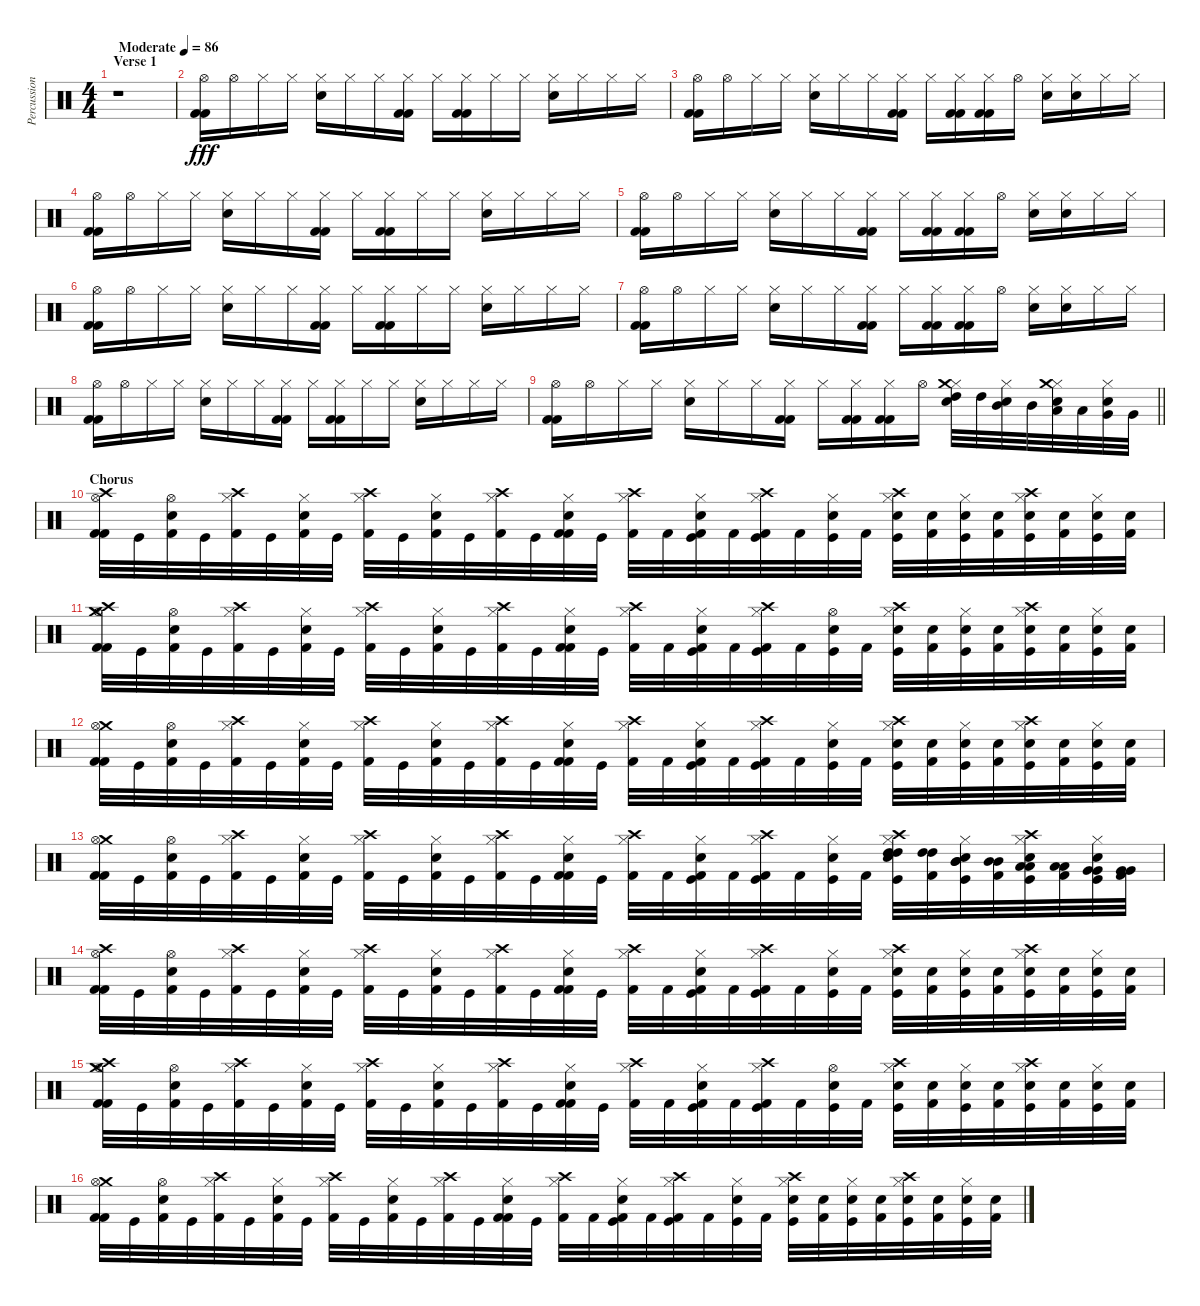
\track ("Percussion" "Percussion") {instrument percussion}
\staff {score}
\articulation defaults
\ts (4 4)
\section ("" "Verse 1")
\tempo (86 "Moderate")
\clef neutral
\ks c
r.1{dy fff} |
("Hi-Hat (open)" "Kick (hit) 2" "Kick (hit) 2").16 "Hi-Hat (open)".16 "Hi-Hat (closed)".16 "Hi-Hat (closed)".16 ("Hi-Hat (closed)" "Electric Snare (hit)").16 "Hi-Hat (closed)".16 "Hi-Hat (closed)".16 ("Hi-Hat (closed)" "Kick (hit) 2" "Kick (hit) 2").16 "Hi-Hat (closed)".16 ("Hi-Hat (closed)" "Kick (hit) 2" "Kick (hit) 2").16 "Hi-Hat (closed)".16 "Hi-Hat (closed)".16 ("Hi-Hat (closed)" "Electric Snare (hit)").16 "Hi-Hat (closed)".16 "Hi-Hat (closed)".16 "Hi-Hat (closed)".16 |
("Hi-Hat (open)" "Kick (hit) 2" "Kick (hit) 2").16 "Hi-Hat (open)".16 "Hi-Hat (closed)".16 "Hi-Hat (closed)".16 ("Hi-Hat (closed)" "Electric Snare (hit)").16 "Hi-Hat (closed)".16 "Hi-Hat (closed)".16 ("Hi-Hat (closed)" "Kick (hit) 2" "Kick (hit) 2").16 "Hi-Hat (closed)".16 ("Hi-Hat (closed)" "Kick (hit) 2" "Kick (hit) 2").16 ("Hi-Hat (closed)" "Kick (hit) 2" "Kick (hit) 2").16 "Hi-Hat (open)".16 ("Hi-Hat (closed)" "Electric Snare (hit)").16 ("Hi-Hat (closed)" "Electric Snare (hit)").16 "Hi-Hat (closed)".16 "Hi-Hat (closed)".16 |
("Hi-Hat (open)" "Kick (hit) 2" "Kick (hit) 2").16 "Hi-Hat (open)".16 "Hi-Hat (closed)".16 "Hi-Hat (closed)".16 ("Hi-Hat (closed)" "Electric Snare (hit)").16 "Hi-Hat (closed)".16 "Hi-Hat (closed)".16 ("Hi-Hat (closed)" "Kick (hit) 2" "Kick (hit) 2").16 "Hi-Hat (closed)".16 ("Hi-Hat (closed)" "Kick (hit) 2" "Kick (hit) 2").16 "Hi-Hat (closed)".16 "Hi-Hat (closed)".16 ("Hi-Hat (closed)" "Electric Snare (hit)").16 "Hi-Hat (closed)".16 "Hi-Hat (closed)".16 "Hi-Hat (closed)".16 |
("Hi-Hat (open)" "Kick (hit) 2" "Kick (hit) 2").16 "Hi-Hat (open)".16 "Hi-Hat (closed)".16 "Hi-Hat (closed)".16 ("Hi-Hat (closed)" "Electric Snare (hit)").16 "Hi-Hat (closed)".16 "Hi-Hat (closed)".16 ("Hi-Hat (closed)" "Kick (hit) 2" "Kick (hit) 2").16 "Hi-Hat (closed)".16 ("Hi-Hat (closed)" "Kick (hit) 2" "Kick (hit) 2").16 ("Hi-Hat (closed)" "Kick (hit) 2" "Kick (hit) 2").16 "Hi-Hat (open)".16 ("Hi-Hat (closed)" "Electric Snare (hit)").16 ("Hi-Hat (closed)" "Electric Snare (hit)").16 "Hi-Hat (closed)".16 "Hi-Hat (closed)".16 |
("Hi-Hat (open)" "Kick (hit) 2" "Kick (hit) 2").16 "Hi-Hat (open)".16 "Hi-Hat (closed)".16 "Hi-Hat (closed)".16 ("Hi-Hat (closed)" "Electric Snare (hit)").16 "Hi-Hat (closed)".16 "Hi-Hat (closed)".16 ("Hi-Hat (closed)" "Kick (hit) 2" "Kick (hit) 2").16 "Hi-Hat (closed)".16 ("Hi-Hat (closed)" "Kick (hit) 2" "Kick (hit) 2").16 "Hi-Hat (closed)".16 "Hi-Hat (closed)".16 ("Hi-Hat (closed)" "Electric Snare (hit)").16 "Hi-Hat (closed)".16 "Hi-Hat (closed)".16 "Hi-Hat (closed)".16 |
("Hi-Hat (open)" "Kick (hit) 2" "Kick (hit) 2").16 "Hi-Hat (open)".16 "Hi-Hat (closed)".16 "Hi-Hat (closed)".16 ("Hi-Hat (closed)" "Electric Snare (hit)").16 "Hi-Hat (closed)".16 "Hi-Hat (closed)".16 ("Hi-Hat (closed)" "Kick (hit) 2" "Kick (hit) 2").16 "Hi-Hat (closed)".16 ("Hi-Hat (closed)" "Kick (hit) 2" "Kick (hit) 2").16 ("Hi-Hat (closed)" "Kick (hit) 2" "Kick (hit) 2").16 "Hi-Hat (open)".16 ("Hi-Hat (closed)" "Electric Snare (hit)").16 ("Hi-Hat (closed)" "Electric Snare (hit)").16 "Hi-Hat (closed)".16 "Hi-Hat (closed)".16 |
("Hi-Hat (open)" "Kick (hit) 2" "Kick (hit) 2").16 "Hi-Hat (open)".16 "Hi-Hat (closed)".16 "Hi-Hat (closed)".16 ("Hi-Hat (closed)" "Electric Snare (hit)").16 "Hi-Hat (closed)".16 "Hi-Hat (closed)".16 ("Hi-Hat (closed)" "Kick (hit) 2" "Kick (hit) 2").16 "Hi-Hat (closed)".16 ("Hi-Hat (closed)" "Kick (hit) 2" "Kick (hit) 2").16 "Hi-Hat (closed)".16 "Hi-Hat (closed)".16 ("Hi-Hat (closed)" "Electric Snare (hit)").16 "Hi-Hat (closed)".16 "Hi-Hat (closed)".16 "Hi-Hat (closed)".16 |
\barLineRight lightlight
("Hi-Hat (open)" "Kick (hit) 2" "Kick (hit) 2").16 "Hi-Hat (open)".16 "Hi-Hat (closed)".16 "Hi-Hat (closed)".16 ("Hi-Hat (closed)" "Electric Snare (hit)").16 "Hi-Hat (closed)".16 "Hi-Hat (closed)".16 ("Hi-Hat (closed)" "Kick (hit) 2" "Kick (hit) 2").16 "Hi-Hat (closed)".16 ("Hi-Hat (closed)" "Kick (hit) 2" "Kick (hit) 2").16 ("Hi-Hat (closed)" "Kick (hit) 2" "Kick (hit) 2").16 "Hi-Hat (open)".16 ("Hi-Hat (closed)" "High Tom (hit)" "Electric Snare (hit)" "Crash medium (hit)").32 "High Tom (hit)".32 ("Hi-Hat (closed)" "Mid Tom (hit)" "Electric Snare (hit)").32 "Mid Tom (hit)".32 ("Hi-Hat (closed)" "Low Tom (hit)" "Electric Snare (hit)" "Crash medium (hit)").32 "Low Tom (hit)".32 ("Hi-Hat (closed)" "Very Low Tom (hit)" "Electric Snare (hit)").32 "Very Low Tom (hit)".32 |
\section ("" "Chorus")
("Crash high (hit)" "Hi-Hat (open)" "Kick (hit) 2" "Kick (hit) 2").32 "Kick (hit)".32 ("Hi-Hat (open)" "Electric Snare (hit)" "Kick (hit) 2").32 "Kick (hit)".32 ("Crash high (hit)" "Hi-Hat (closed)" "Kick (hit) 2").32 "Kick (hit)".32 ("Hi-Hat (closed)" "Electric Snare (hit)" "Kick (hit) 2").32 "Kick (hit)".32 ("Crash high (hit)" "Hi-Hat (closed)" "Kick (hit) 2").32 "Kick (hit)".32 ("Hi-Hat (closed)" "Electric Snare (hit)" "Kick (hit) 2").32 "Kick (hit)".32 ("Crash high (hit)" "Hi-Hat (closed)" "Kick (hit) 2").32 "Kick (hit)".32 ("Hi-Hat (closed)" "Electric Snare (hit)" "Kick (hit) 2" "Kick (hit) 2").32 "Kick (hit)".32 ("Crash high (hit)" "Hi-Hat (closed)" "Kick (hit) 2").32 "Kick (hit) 2".32 ("Hi-Hat (closed)" "Electric Snare (hit)" "Kick (hit) 2" "Kick (hit)").32 "Kick (hit) 2".32 ("Crash high (hit)" "Hi-Hat (closed)" "Kick (hit) 2" "Kick (hit)").32 "Kick (hit) 2".32 ("Hi-Hat (closed)" "Electric Snare (hit)" "Kick (hit)").32 "Kick (hit) 2".32 ("Crash high (hit)" "Hi-Hat (closed)" "Electric Snare (hit)" "Kick (hit)").32 ("Electric Snare (hit)" "Kick (hit) 2").32 ("Hi-Hat (closed)" "Electric Snare (hit)" "Kick (hit)").32 ("Electric Snare (hit)" "Kick (hit) 2").32 ("Crash high (hit)" "Hi-Hat (closed)" "Electric Snare (hit)" "Kick (hit)").32 ("Electric Snare (hit)" "Kick (hit) 2").32 ("Hi-Hat (closed)" "Electric Snare (hit)" "Kick (hit)").32 ("Electric Snare (hit)" "Kick (hit) 2").32 |
("Crash medium (hit)" "Hi-Hat (open)" "Crash high (hit)" "Kick (hit) 2" "Kick (hit) 2").32 "Kick (hit)".32 ("Hi-Hat (open)" "Electric Snare (hit)" "Kick (hit) 2").32 "Kick (hit)".32 ("Crash high (hit)" "Hi-Hat (closed)" "Kick (hit) 2").32 "Kick (hit)".32 ("Hi-Hat (closed)" "Electric Snare (hit)" "Kick (hit) 2").32 "Kick (hit)".32 ("Crash high (hit)" "Hi-Hat (closed)" "Kick (hit) 2").32 "Kick (hit)".32 ("Hi-Hat (closed)" "Electric Snare (hit)" "Kick (hit) 2").32 "Kick (hit)".32 ("Crash high (hit)" "Hi-Hat (closed)" "Kick (hit) 2").32 "Kick (hit)".32 ("Hi-Hat (closed)" "Electric Snare (hit)" "Kick (hit) 2" "Kick (hit) 2").32 "Kick (hit)".32 ("Crash high (hit)" "Hi-Hat (closed)" "Kick (hit) 2").32 "Kick (hit) 2".32 ("Hi-Hat (closed)" "Electric Snare (hit)" "Kick (hit) 2" "Kick (hit)").32 "Kick (hit) 2".32 ("Crash high (hit)" "Hi-Hat (closed)" "Kick (hit) 2" "Kick (hit)").32 "Kick (hit) 2".32 ("Hi-Hat (open)" "Electric Snare (hit)" "Kick (hit)").32 "Kick (hit) 2".32 ("Crash high (hit)" "Hi-Hat (closed)" "Electric Snare (hit)" "Kick (hit)").32 ("Electric Snare (hit)" "Kick (hit) 2").32 ("Hi-Hat (closed)" "Electric Snare (hit)" "Kick (hit)").32 ("Electric Snare (hit)" "Kick (hit) 2").32 ("Crash high (hit)" "Hi-Hat (closed)" "Electric Snare (hit)" "Kick (hit)").32 ("Electric Snare (hit)" "Kick (hit) 2").32 ("Hi-Hat (closed)" "Electric Snare (hit)" "Kick (hit)").32 ("Electric Snare (hit)" "Kick (hit) 2").32 |
("Crash medium (hit)" "Hi-Hat (open)" "Kick (hit) 2" "Kick (hit) 2").32 "Kick (hit)".32 ("Hi-Hat (open)" "Electric Snare (hit)" "Kick (hit) 2").32 "Kick (hit)".32 ("Crash high (hit)" "Hi-Hat (closed)" "Kick (hit) 2").32 "Kick (hit)".32 ("Hi-Hat (closed)" "Electric Snare (hit)" "Kick (hit) 2").32 "Kick (hit)".32 ("Crash high (hit)" "Hi-Hat (closed)" "Kick (hit) 2").32 "Kick (hit)".32 ("Hi-Hat (closed)" "Electric Snare (hit)" "Kick (hit) 2").32 "Kick (hit)".32 ("Crash high (hit)" "Hi-Hat (closed)" "Kick (hit) 2").32 "Kick (hit)".32 ("Hi-Hat (closed)" "Electric Snare (hit)" "Kick (hit) 2" "Kick (hit) 2").32 "Kick (hit)".32 ("Crash high (hit)" "Hi-Hat (closed)" "Kick (hit) 2").32 "Kick (hit) 2".32 ("Hi-Hat (closed)" "Electric Snare (hit)" "Kick (hit) 2" "Kick (hit)").32 "Kick (hit) 2".32 ("Crash high (hit)" "Hi-Hat (closed)" "Kick (hit) 2" "Kick (hit)").32 "Kick (hit) 2".32 ("Hi-Hat (closed)" "Electric Snare (hit)" "Kick (hit)").32 "Kick (hit) 2".32 ("Crash high (hit)" "Hi-Hat (closed)" "Electric Snare (hit)" "Kick (hit)").32 ("Electric Snare (hit)" "Kick (hit) 2").32 ("Hi-Hat (closed)" "Electric Snare (hit)" "Kick (hit)").32 ("Electric Snare (hit)" "Kick (hit) 2").32 ("Crash high (hit)" "Hi-Hat (closed)" "Electric Snare (hit)" "Kick (hit)").32 ("Electric Snare (hit)" "Kick (hit) 2").32 ("Hi-Hat (closed)" "Electric Snare (hit)" "Kick (hit)").32 ("Electric Snare (hit)" "Kick (hit) 2").32 |
("Crash medium (hit)" "Hi-Hat (open)" "Kick (hit) 2" "Kick (hit) 2").32 "Kick (hit)".32 ("Hi-Hat (open)" "Electric Snare (hit)" "Kick (hit) 2").32 "Kick (hit)".32 ("Crash high (hit)" "Hi-Hat (closed)" "Kick (hit) 2").32 "Kick (hit)".32 ("Hi-Hat (closed)" "Electric Snare (hit)" "Kick (hit) 2").32 "Kick (hit)".32 ("Crash high (hit)" "Hi-Hat (closed)" "Kick (hit) 2").32 "Kick (hit)".32 ("Hi-Hat (closed)" "Electric Snare (hit)" "Kick (hit) 2").32 "Kick (hit)".32 ("Crash high (hit)" "Hi-Hat (closed)" "Kick (hit) 2").32 "Kick (hit)".32 ("Hi-Hat (closed)" "Electric Snare (hit)" "Kick (hit) 2" "Kick (hit) 2").32 "Kick (hit)".32 ("Crash high (hit)" "Hi-Hat (closed)" "Kick (hit) 2").32 "Kick (hit) 2".32 ("Hi-Hat (closed)" "Electric Snare (hit)" "Kick (hit) 2" "Kick (hit)").32 "Kick (hit) 2".32 ("Crash high (hit)" "Hi-Hat (closed)" "Kick (hit) 2" "Kick (hit)").32 "Kick (hit) 2".32 ("Hi-Hat (closed)" "Electric Snare (hit)" "Kick (hit)").32 "Kick (hit) 2".32 ("Crash high (hit)" "Hi-Hat (closed)" "High Tom (hit)" "High Tom (hit)" "Electric Snare (hit)" "Kick (hit)").32 ("High Tom (hit)" "High Tom (hit)" "Kick (hit) 2").32 ("Hi-Hat (closed)" "Mid Tom (hit)" "Mid Tom (hit)" "Electric Snare (hit)" "Kick (hit)").32 ("Mid Tom (hit)" "Mid Tom (hit)" "Kick (hit) 2").32 ("Crash high (hit)" "Hi-Hat (closed)" "Low Tom (hit)" "Low Tom (hit)" "Electric Snare (hit)" "Kick (hit)").32 ("Low Tom (hit)" "Low Tom (hit)" "Kick (hit) 2").32 ("Hi-Hat (closed)" "Very Low Tom (hit)" "Very Low Tom (hit)" "Electric Snare (hit)" "Kick (hit)").32 ("Very Low Tom (hit)" "Very Low Tom (hit)" "Kick (hit) 2").32 |
("Crash high (hit)" "Hi-Hat (open)" "Kick (hit) 2" "Kick (hit) 2").32 "Kick (hit)".32 ("Hi-Hat (open)" "Electric Snare (hit)" "Kick (hit) 2").32 "Kick (hit)".32 ("Crash high (hit)" "Hi-Hat (closed)" "Kick (hit) 2").32 "Kick (hit)".32 ("Hi-Hat (closed)" "Electric Snare (hit)" "Kick (hit) 2").32 "Kick (hit)".32 ("Crash high (hit)" "Hi-Hat (closed)" "Kick (hit) 2").32 "Kick (hit)".32 ("Hi-Hat (closed)" "Electric Snare (hit)" "Kick (hit) 2").32 "Kick (hit)".32 ("Crash high (hit)" "Hi-Hat (closed)" "Kick (hit) 2").32 "Kick (hit)".32 ("Hi-Hat (closed)" "Electric Snare (hit)" "Kick (hit) 2" "Kick (hit) 2").32 "Kick (hit)".32 ("Crash high (hit)" "Hi-Hat (closed)" "Kick (hit) 2").32 "Kick (hit) 2".32 ("Hi-Hat (closed)" "Electric Snare (hit)" "Kick (hit) 2" "Kick (hit)").32 "Kick (hit) 2".32 ("Crash high (hit)" "Hi-Hat (closed)" "Kick (hit) 2" "Kick (hit)").32 "Kick (hit) 2".32 ("Hi-Hat (closed)" "Electric Snare (hit)" "Kick (hit)").32 "Kick (hit) 2".32 ("Crash high (hit)" "Hi-Hat (closed)" "Electric Snare (hit)" "Kick (hit)").32 ("Electric Snare (hit)" "Kick (hit) 2").32 ("Hi-Hat (closed)" "Electric Snare (hit)" "Kick (hit)").32 ("Electric Snare (hit)" "Kick (hit) 2").32 ("Crash high (hit)" "Hi-Hat (closed)" "Electric Snare (hit)" "Kick (hit)").32 ("Electric Snare (hit)" "Kick (hit) 2").32 ("Hi-Hat (closed)" "Electric Snare (hit)" "Kick (hit)").32 ("Electric Snare (hit)" "Kick (hit) 2").32 |
("Crash medium (hit)" "Hi-Hat (open)" "Crash high (hit)" "Kick (hit) 2" "Kick (hit) 2").32 "Kick (hit)".32 ("Hi-Hat (open)" "Electric Snare (hit)" "Kick (hit) 2").32 "Kick (hit)".32 ("Crash high (hit)" "Hi-Hat (closed)" "Kick (hit) 2").32 "Kick (hit)".32 ("Hi-Hat (closed)" "Electric Snare (hit)" "Kick (hit) 2").32 "Kick (hit)".32 ("Crash high (hit)" "Hi-Hat (closed)" "Kick (hit) 2").32 "Kick (hit)".32 ("Hi-Hat (closed)" "Electric Snare (hit)" "Kick (hit) 2").32 "Kick (hit)".32 ("Crash high (hit)" "Hi-Hat (closed)" "Kick (hit) 2").32 "Kick (hit)".32 ("Hi-Hat (closed)" "Electric Snare (hit)" "Kick (hit) 2" "Kick (hit) 2").32 "Kick (hit)".32 ("Crash high (hit)" "Hi-Hat (closed)" "Kick (hit) 2").32 "Kick (hit) 2".32 ("Hi-Hat (closed)" "Electric Snare (hit)" "Kick (hit) 2" "Kick (hit)").32 "Kick (hit) 2".32 ("Crash high (hit)" "Hi-Hat (closed)" "Kick (hit) 2" "Kick (hit)").32 "Kick (hit) 2".32 ("Hi-Hat (open)" "Electric Snare (hit)" "Kick (hit)").32 "Kick (hit) 2".32 ("Crash high (hit)" "Hi-Hat (closed)" "Electric Snare (hit)" "Kick (hit)").32 ("Electric Snare (hit)" "Kick (hit) 2").32 ("Hi-Hat (closed)" "Electric Snare (hit)" "Kick (hit)").32 ("Electric Snare (hit)" "Kick (hit) 2").32 ("Crash high (hit)" "Hi-Hat (closed)" "Electric Snare (hit)" "Kick (hit)").32 ("Electric Snare (hit)" "Kick (hit) 2").32 ("Hi-Hat (closed)" "Electric Snare (hit)" "Kick (hit)").32 ("Electric Snare (hit)" "Kick (hit) 2").32 |
("Crash medium (hit)" "Hi-Hat (open)" "Kick (hit) 2" "Kick (hit) 2").32 "Kick (hit)".32 ("Hi-Hat (open)" "Electric Snare (hit)" "Kick (hit) 2").32 "Kick (hit)".32 ("Crash high (hit)" "Hi-Hat (closed)" "Kick (hit) 2").32 "Kick (hit)".32 ("Hi-Hat (closed)" "Electric Snare (hit)" "Kick (hit) 2").32 "Kick (hit)".32 ("Crash high (hit)" "Hi-Hat (closed)" "Kick (hit) 2").32 "Kick (hit)".32 ("Hi-Hat (closed)" "Electric Snare (hit)" "Kick (hit) 2").32 "Kick (hit)".32 ("Crash high (hit)" "Hi-Hat (closed)" "Kick (hit) 2").32 "Kick (hit)".32 ("Hi-Hat (closed)" "Electric Snare (hit)" "Kick (hit) 2" "Kick (hit) 2").32 "Kick (hit)".32 ("Crash high (hit)" "Hi-Hat (closed)" "Kick (hit) 2").32 "Kick (hit) 2".32 ("Hi-Hat (closed)" "Electric Snare (hit)" "Kick (hit) 2" "Kick (hit)").32 "Kick (hit) 2".32 ("Crash high (hit)" "Hi-Hat (closed)" "Kick (hit) 2" "Kick (hit)").32 "Kick (hit) 2".32 ("Hi-Hat (closed)" "Electric Snare (hit)" "Kick (hit)").32 "Kick (hit) 2".32 ("Crash high (hit)" "Hi-Hat (closed)" "Electric Snare (hit)" "Kick (hit)").32 ("Electric Snare (hit)" "Kick (hit) 2").32 ("Hi-Hat (closed)" "Electric Snare (hit)" "Kick (hit)").32 ("Electric Snare (hit)" "Kick (hit) 2").32 ("Crash high (hit)" "Hi-Hat (closed)" "Electric Snare (hit)" "Kick (hit)").32 ("Electric Snare (hit)" "Kick (hit) 2").32 ("Hi-Hat (closed)" "Electric Snare (hit)" "Kick (hit)").32 ("Electric Snare (hit)" "Kick (hit) 2").32
